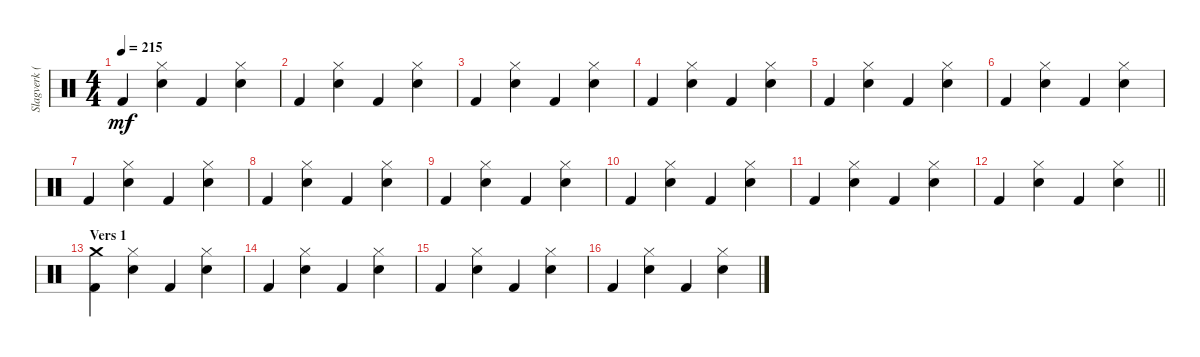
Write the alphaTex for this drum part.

\track ("Slagverk (Jan Kristiansen)" "Slagverk (") {instrument percussion}
\staff {score}
\articulation defaults
\ts (4 4)
\tempo 215
\clef neutral
\ks c "Kick (hit) 2".4{dy mf}
("Hi-Hat (closed)" "Snare (hit) 2").4 "Kick (hit) 2".4 ("Hi-Hat (closed)" "Snare (hit) 2").4 |
"Kick (hit) 2".4 ("Hi-Hat (closed)" "Snare (hit) 2").4 "Kick (hit) 2".4 ("Hi-Hat (closed)" "Snare (hit) 2").4 |
"Kick (hit) 2".4 ("Hi-Hat (closed)" "Snare (hit) 2").4 "Kick (hit) 2".4 ("Hi-Hat (closed)" "Snare (hit) 2").4 |
"Kick (hit) 2".4 ("Hi-Hat (closed)" "Snare (hit) 2").4 "Kick (hit) 2".4 ("Hi-Hat (closed)" "Snare (hit) 2").4 |
"Kick (hit) 2".4 ("Hi-Hat (closed)" "Snare (hit) 2").4 "Kick (hit) 2".4 ("Hi-Hat (closed)" "Snare (hit) 2").4 |
"Kick (hit) 2".4 ("Hi-Hat (closed)" "Snare (hit) 2").4 "Kick (hit) 2".4 ("Hi-Hat (closed)" "Snare (hit) 2").4 |
"Kick (hit) 2".4 ("Hi-Hat (closed)" "Snare (hit) 2").4 "Kick (hit) 2".4 ("Hi-Hat (closed)" "Snare (hit) 2").4 |
"Kick (hit) 2".4 ("Hi-Hat (closed)" "Snare (hit) 2").4 "Kick (hit) 2".4 ("Hi-Hat (closed)" "Snare (hit) 2").4 |
"Kick (hit) 2".4 ("Hi-Hat (closed)" "Snare (hit) 2").4 "Kick (hit) 2".4 ("Hi-Hat (closed)" "Snare (hit) 2").4 |
"Kick (hit) 2".4 ("Hi-Hat (closed)" "Snare (hit) 2").4 "Kick (hit) 2".4 ("Hi-Hat (closed)" "Snare (hit) 2").4 |
"Kick (hit) 2".4 ("Hi-Hat (closed)" "Snare (hit) 2").4 "Kick (hit) 2".4 ("Hi-Hat (closed)" "Snare (hit) 2").4 |
\barLineRight lightlight "Kick (hit) 2".4
("Hi-Hat (closed)" "Snare (hit) 2").4 "Kick (hit) 2".4 ("Hi-Hat (closed)" "Snare (hit) 2").4 |
\section ("" "Vers 1")
("Crash medium (hit)" "Kick (hit) 2").4 ("Hi-Hat (closed)" "Snare (hit) 2").4 "Kick (hit) 2".4 ("Hi-Hat (closed)" "Snare (hit) 2").4 |
"Kick (hit) 2".4 ("Hi-Hat (closed)" "Snare (hit) 2").4 "Kick (hit) 2".4 ("Hi-Hat (closed)" "Snare (hit) 2").4 |
"Kick (hit) 2".4 ("Hi-Hat (closed)" "Snare (hit) 2").4 "Kick (hit) 2".4 ("Hi-Hat (closed)" "Snare (hit) 2").4 |
"Kick (hit) 2".4 ("Hi-Hat (closed)" "Snare (hit) 2").4 "Kick (hit) 2".4 ("Hi-Hat (closed)" "Snare (hit) 2").4
